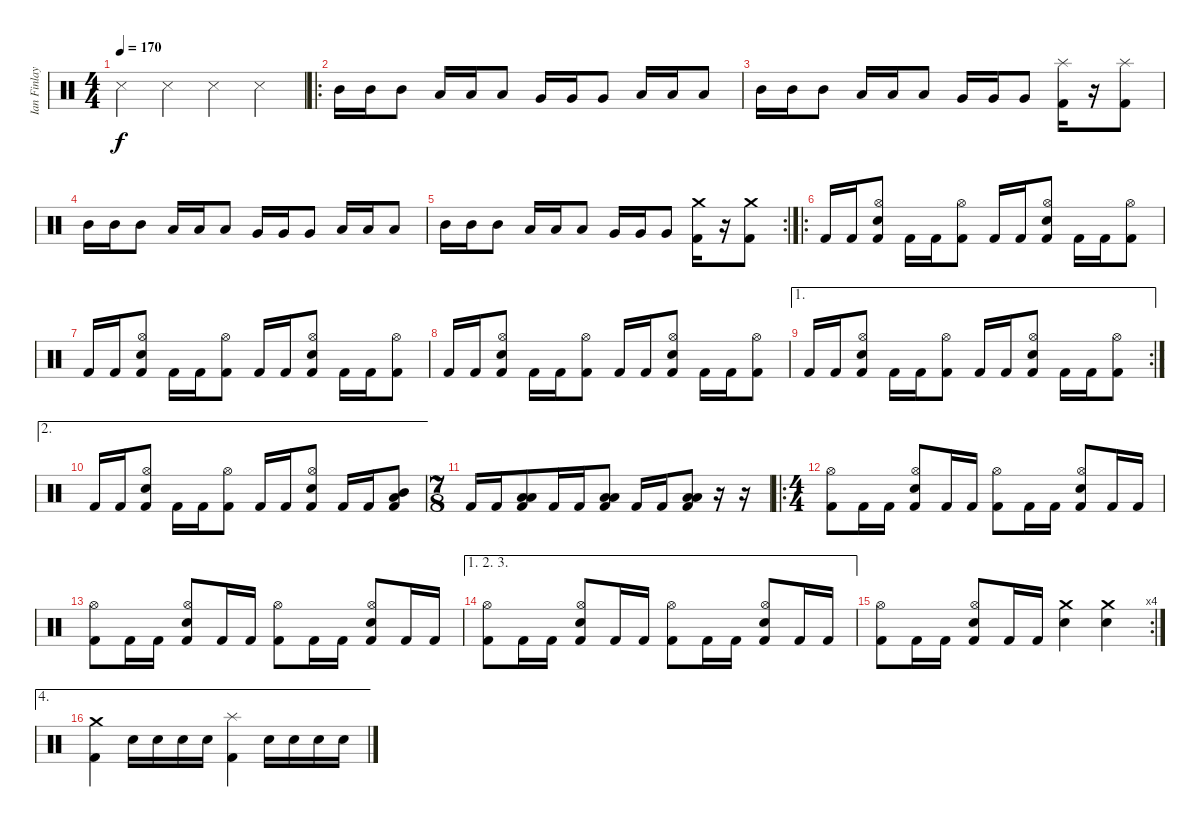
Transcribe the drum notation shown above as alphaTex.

\track ("Ian Finlay (Drums)" "Ian Finlay") {instrument percussion}
\staff {score}
\articulation defaults
\ts (4 4)
\tempo 170
\clef neutral
\ks c "Snare (side stick) 3".4{dy f} "Snare (side stick) 3".4 "Snare (side stick) 3".4 "Snare (side stick) 3".4
|
\ro "Mid Tom (hit)".16 "Mid Tom (hit)".16 "Mid Tom (hit)".8 "Low Tom (hit)".16 "Low Tom (hit)".16 "Low Tom (hit)".8 "Very Low Tom (hit)".16 "Very Low Tom (hit)".16 "Very Low Tom (hit)".8 "Low Floor Tom (hit)".16 "Low Floor Tom (hit)".16 "Low Floor Tom (hit)".8
|
"Mid Tom (hit)".16 "Mid Tom (hit)".16 "Mid Tom (hit)".8 "Low Tom (hit)".16 "Low Tom (hit)".16 "Low Tom (hit)".8 "Very Low Tom (hit)".16 "Very Low Tom (hit)".16 "Very Low Tom (hit)".8 ("Kick (hit) 2" "Splash (hit)").16 r.16 ("Kick (hit) 2" "Splash (hit)").8 |
"Mid Tom (hit)".16 "Mid Tom (hit)".16 "Mid Tom (hit)".8 "Low Tom (hit)".16 "Low Tom (hit)".16 "Low Tom (hit)".8 "Very Low Tom (hit)".16 "Very Low Tom (hit)".16 "Very Low Tom (hit)".8 "Low Floor Tom (hit)".16 "Low Floor Tom (hit)".16 "Low Floor Tom (hit)".8 |
\rc 2 "Mid Tom (hit)".16 "Mid Tom (hit)".16 "Mid Tom (hit)".8 "Low Tom (hit)".16 "Low Tom (hit)".16 "Low Tom (hit)".8 "Very Low Tom (hit)".16 "Very Low Tom (hit)".16 "Very Low Tom (hit)".8
("Kick (hit) 2" "Crash medium (hit)").16 r.16 ("Kick (hit) 2" "Crash medium (hit)").8 |
\ro "Kick (hit) 2".16 "Kick (hit) 2".16
("Kick (hit) 2" "Hi-Hat (open)" "Snare (hit) 2").8 "Kick (hit) 2".16 "Kick (hit) 2".16 ("Kick (hit) 2" "Hi-Hat (open)").8 "Kick (hit) 2".16 "Kick (hit) 2".16 ("Kick (hit) 2" "Hi-Hat (open)" "Snare (hit) 2").8 "Kick (hit) 2".16 "Kick (hit) 2".16 ("Kick (hit) 2" "Hi-Hat (open)").8 |
"Kick (hit) 2".16 "Kick (hit) 2".16 ("Kick (hit) 2" "Hi-Hat (open)" "Snare (hit) 2").8 "Kick (hit) 2".16 "Kick (hit) 2".16 ("Kick (hit) 2" "Hi-Hat (open)").8 "Kick (hit) 2".16 "Kick (hit) 2".16 ("Kick (hit) 2" "Hi-Hat (open)" "Snare (hit) 2").8 "Kick (hit) 2".16 "Kick (hit) 2".16 ("Kick (hit) 2" "Hi-Hat (open)").8 |
"Kick (hit) 2".16 "Kick (hit) 2".16 ("Kick (hit) 2" "Hi-Hat (open)" "Snare (hit) 2").8 "Kick (hit) 2".16 "Kick (hit) 2".16 ("Kick (hit) 2" "Hi-Hat (open)").8 "Kick (hit) 2".16 "Kick (hit) 2".16 ("Kick (hit) 2" "Hi-Hat (open)" "Snare (hit) 2").8 "Kick (hit) 2".16 "Kick (hit) 2".16 ("Kick (hit) 2" "Hi-Hat (open)").8 |
\ae 1
\rc 2 "Kick (hit) 2".16 "Kick (hit) 2".16
("Kick (hit) 2" "Hi-Hat (open)" "Snare (hit) 2").8 "Kick (hit) 2".16 "Kick (hit) 2".16 ("Kick (hit) 2" "Hi-Hat (open)").8 "Kick (hit) 2".16 "Kick (hit) 2".16 ("Kick (hit) 2" "Hi-Hat (open)" "Snare (hit) 2").8 "Kick (hit) 2".16 "Kick (hit) 2".16 ("Kick (hit) 2" "Hi-Hat (open)").8 |
\ae 2 "Kick (hit) 2".16 "Kick (hit) 2".16
("Kick (hit) 2" "Hi-Hat (open)" "Snare (hit) 2").8 "Kick (hit) 2".16 "Kick (hit) 2".16 ("Kick (hit) 2" "Hi-Hat (open)").8 "Kick (hit) 2".16 "Kick (hit) 2".16 ("Kick (hit) 2" "Hi-Hat (open)" "Snare (hit) 2").8 "Kick (hit) 2".16 "Kick (hit) 2".16 ("Kick (hit) 2" "Mid Tom (hit)" "Low Tom (hit)").8 |
\ts (7 8)
"Kick (hit) 2".16 "Kick (hit) 2".16 ("Kick (hit) 2" "Low Tom (hit)" "Low Floor Tom (hit)").8 "Kick (hit) 2".16 "Kick (hit) 2".16 ("Kick (hit) 2" "Low Floor Tom (hit)" "Low Floor Tom (hit)").8 "Kick (hit) 2".16 "Kick (hit) 2".16 ("Kick (hit) 2" "Low Floor Tom (hit)" "Low Floor Tom (hit)").8 r.16 r.16 |
\ro
\ts (4 4)
("Kick (hit) 2" "Hi-Hat (open)").8 "Kick (hit) 2".16 "Kick (hit) 2".16 ("Kick (hit) 2" "Snare (hit) 2" "Hi-Hat (open)").8 "Kick (hit) 2".16 "Kick (hit) 2".16 ("Kick (hit) 2" "Hi-Hat (open)").8 "Kick (hit) 2".16 "Kick (hit) 2".16 ("Kick (hit) 2" "Snare (hit) 2" "Hi-Hat (open)").8 "Kick (hit) 2".16 "Kick (hit) 2".16 |
("Kick (hit) 2" "Hi-Hat (open)").8 "Kick (hit) 2".16 "Kick (hit) 2".16 ("Kick (hit) 2" "Snare (hit) 2" "Hi-Hat (open)").8 "Kick (hit) 2".16 "Kick (hit) 2".16 ("Kick (hit) 2" "Hi-Hat (open)").8 "Kick (hit) 2".16 "Kick (hit) 2".16 ("Kick (hit) 2" "Snare (hit) 2" "Hi-Hat (open)").8 "Kick (hit) 2".16 "Kick (hit) 2".16 |
\ae (1 2 3)
("Kick (hit) 2" "Hi-Hat (open)").8 "Kick (hit) 2".16 "Kick (hit) 2".16 ("Kick (hit) 2" "Snare (hit) 2" "Hi-Hat (open)").8 "Kick (hit) 2".16 "Kick (hit) 2".16 ("Kick (hit) 2" "Hi-Hat (open)").8 "Kick (hit) 2".16 "Kick (hit) 2".16 ("Kick (hit) 2" "Snare (hit) 2" "Hi-Hat (open)").8 "Kick (hit) 2".16 "Kick (hit) 2".16 |
\rc 4
("Kick (hit) 2" "Hi-Hat (open)").8 "Kick (hit) 2".16 "Kick (hit) 2".16 ("Kick (hit) 2" "Snare (hit) 2" "Hi-Hat (open)").8 "Kick (hit) 2".16 "Kick (hit) 2".16 ("Snare (hit) 2" "Crash medium (hit)").4 ("Snare (hit) 2" "Crash medium (hit)").4 |
\ae 4
("Kick (hit) 2" "Crash medium (hit)").4 "Snare (hit) 2".16 "Snare (hit) 2".16 "Snare (hit) 2".16 "Snare (hit) 2".16 ("Kick (hit) 2" "Splash (hit)").4 "Snare (hit) 2".16 "Snare (hit) 2".16 "Snare (hit) 2".16 "Snare (hit) 2".16
